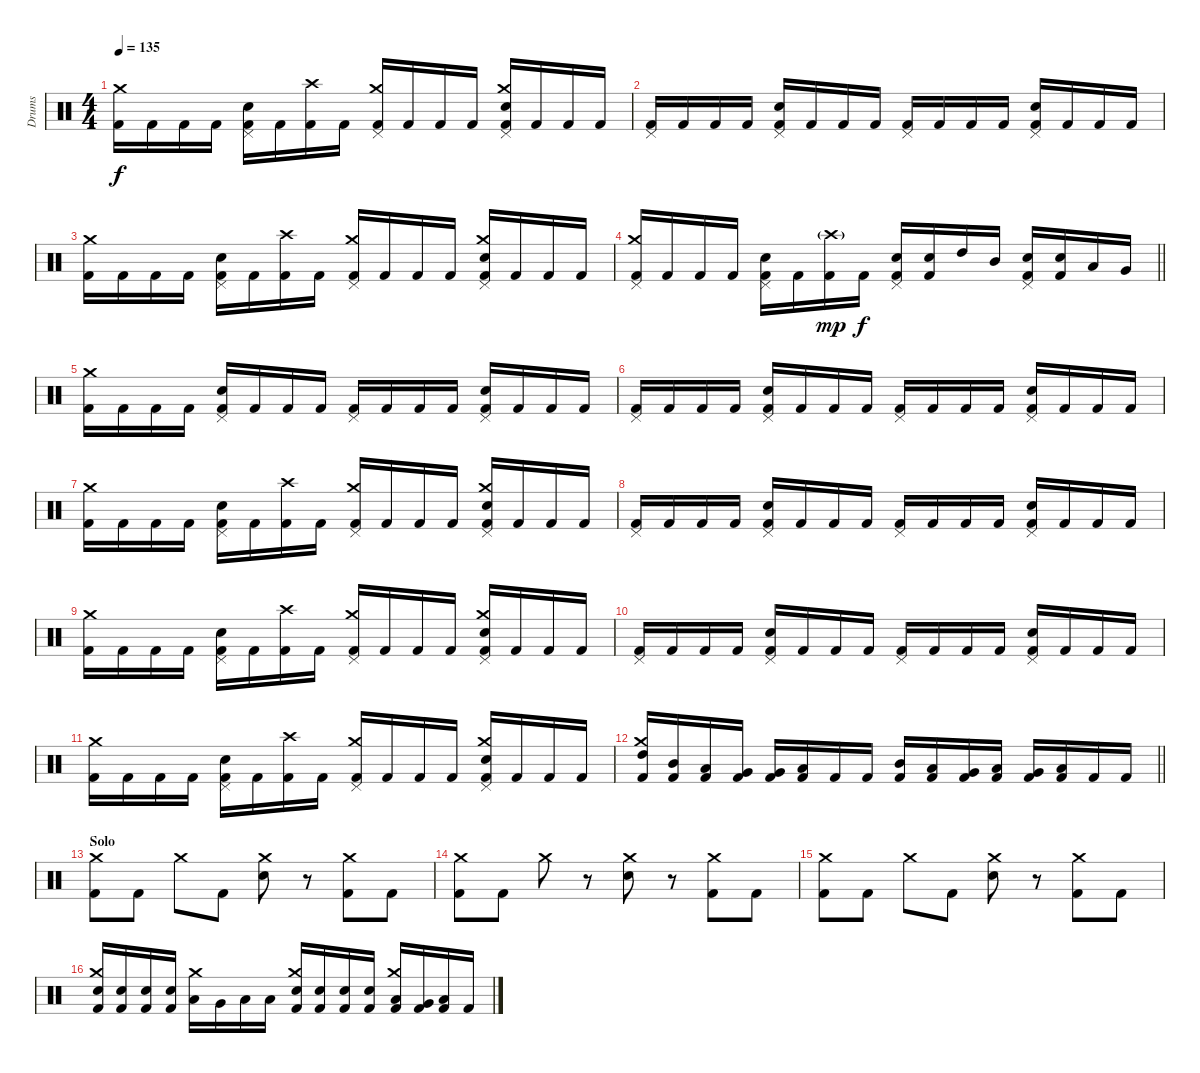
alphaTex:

\track ("Drums" "Drums") {instrument percussion}
\staff {score}
\articulation defaults
\ts (4 4)
\tempo 135
\clef neutral
\ks c
("Kick (hit) 2" "Crash medium (hit)").16{dy f} "Kick (hit) 2".16 "Kick (hit) 2".16 "Kick (hit) 2".16 ("Kick (hit) 2" "Snare (hit) 2" "Pedal Hi-Hat (hit)").16 "Kick (hit) 2".16 ("Kick (hit) 2" "Crash high (hit)").16 "Kick (hit) 2".16 ("Kick (hit) 2" "Pedal Hi-Hat (hit)" "Crash medium (hit)").16 "Kick (hit) 2".16 "Kick (hit) 2".16 "Kick (hit) 2".16 ("Kick (hit) 2" "Snare (hit) 2" "Pedal Hi-Hat (hit)" "Crash medium (hit)").16 "Kick (hit) 2".16 "Kick (hit) 2".16 "Kick (hit) 2".16 |
("Kick (hit) 2" "Pedal Hi-Hat (hit)").16 "Kick (hit) 2".16 "Kick (hit) 2".16 "Kick (hit) 2".16 ("Kick (hit) 2" "Snare (hit) 2" "Pedal Hi-Hat (hit)").16 "Kick (hit) 2".16 "Kick (hit) 2".16 "Kick (hit) 2".16 ("Kick (hit) 2" "Pedal Hi-Hat (hit)").16 "Kick (hit) 2".16 "Kick (hit) 2".16 "Kick (hit) 2".16 ("Kick (hit) 2" "Snare (hit) 2" "Pedal Hi-Hat (hit)").16 "Kick (hit) 2".16 "Kick (hit) 2".16 "Kick (hit) 2".16 |
("Kick (hit) 2" "Crash medium (hit)").16 "Kick (hit) 2".16 "Kick (hit) 2".16 "Kick (hit) 2".16 ("Kick (hit) 2" "Snare (hit) 2" "Pedal Hi-Hat (hit)").16 "Kick (hit) 2".16 ("Kick (hit) 2" "Crash high (hit)").16 "Kick (hit) 2".16 ("Kick (hit) 2" "Pedal Hi-Hat (hit)" "Crash medium (hit)").16 "Kick (hit) 2".16 "Kick (hit) 2".16 "Kick (hit) 2".16 ("Kick (hit) 2" "Snare (hit) 2" "Pedal Hi-Hat (hit)" "Crash medium (hit)").16 "Kick (hit) 2".16 "Kick (hit) 2".16 "Kick (hit) 2".16 |
\barLineRight lightlight
("Kick (hit) 2" "Pedal Hi-Hat (hit)" "Crash medium (hit)").16 "Kick (hit) 2".16 "Kick (hit) 2".16 "Kick (hit) 2".16 ("Kick (hit) 2" "Snare (hit) 2" "Pedal Hi-Hat (hit)").16 "Kick (hit) 2".16 ("Kick (hit) 2" "Crash high (hit)"{g}).16{dy mp} "Kick (hit) 2".16{dy f} ("Kick (hit) 2" "Snare (hit) 2" "Pedal Hi-Hat (hit)").16 ("Kick (hit) 2" "Snare (hit) 2").16 "High Tom (hit)".16 "Mid Tom (hit)".16 ("Kick (hit) 2" "Snare (hit) 2" "Pedal Hi-Hat (hit)").16 ("Kick (hit) 2" "Snare (hit) 2").16 "Low Tom (hit)".16 "Very Low Tom (hit)".16 |
\section ("" "")
("Kick (hit) 2" "Crash medium (hit)").16 "Kick (hit) 2".16 "Kick (hit) 2".16 "Kick (hit) 2".16 ("Kick (hit) 2" "Snare (hit) 2" "Pedal Hi-Hat (hit)").16 "Kick (hit) 2".16 "Kick (hit) 2".16 "Kick (hit) 2".16 ("Kick (hit) 2" "Pedal Hi-Hat (hit)").16 "Kick (hit) 2".16 "Kick (hit) 2".16 "Kick (hit) 2".16 ("Kick (hit) 2" "Snare (hit) 2" "Pedal Hi-Hat (hit)").16 "Kick (hit) 2".16 "Kick (hit) 2".16 "Kick (hit) 2".16 |
("Kick (hit) 2" "Pedal Hi-Hat (hit)").16 "Kick (hit) 2".16 "Kick (hit) 2".16 "Kick (hit) 2".16 ("Kick (hit) 2" "Snare (hit) 2" "Pedal Hi-Hat (hit)").16 "Kick (hit) 2".16 "Kick (hit) 2".16 "Kick (hit) 2".16 ("Kick (hit) 2" "Pedal Hi-Hat (hit)").16 "Kick (hit) 2".16 "Kick (hit) 2".16 "Kick (hit) 2".16 ("Kick (hit) 2" "Snare (hit) 2" "Pedal Hi-Hat (hit)").16 "Kick (hit) 2".16 "Kick (hit) 2".16 "Kick (hit) 2".16 |
("Kick (hit) 2" "Crash medium (hit)").16 "Kick (hit) 2".16 "Kick (hit) 2".16 "Kick (hit) 2".16 ("Kick (hit) 2" "Snare (hit) 2" "Pedal Hi-Hat (hit)").16 "Kick (hit) 2".16 ("Kick (hit) 2" "Crash high (hit)").16 "Kick (hit) 2".16 ("Kick (hit) 2" "Pedal Hi-Hat (hit)" "Crash medium (hit)").16 "Kick (hit) 2".16 "Kick (hit) 2".16 "Kick (hit) 2".16 ("Kick (hit) 2" "Snare (hit) 2" "Pedal Hi-Hat (hit)" "Crash medium (hit)").16 "Kick (hit) 2".16 "Kick (hit) 2".16 "Kick (hit) 2".16 |
("Kick (hit) 2" "Pedal Hi-Hat (hit)").16 "Kick (hit) 2".16 "Kick (hit) 2".16 "Kick (hit) 2".16 ("Kick (hit) 2" "Snare (hit) 2" "Pedal Hi-Hat (hit)").16 "Kick (hit) 2".16 "Kick (hit) 2".16 "Kick (hit) 2".16 ("Kick (hit) 2" "Pedal Hi-Hat (hit)").16 "Kick (hit) 2".16 "Kick (hit) 2".16 "Kick (hit) 2".16 ("Kick (hit) 2" "Snare (hit) 2" "Pedal Hi-Hat (hit)").16 "Kick (hit) 2".16 "Kick (hit) 2".16 "Kick (hit) 2".16 |
("Kick (hit) 2" "Crash medium (hit)").16 "Kick (hit) 2".16 "Kick (hit) 2".16 "Kick (hit) 2".16 ("Kick (hit) 2" "Snare (hit) 2" "Pedal Hi-Hat (hit)").16 "Kick (hit) 2".16 ("Kick (hit) 2" "Crash high (hit)").16 "Kick (hit) 2".16 ("Kick (hit) 2" "Pedal Hi-Hat (hit)" "Crash medium (hit)").16 "Kick (hit) 2".16 "Kick (hit) 2".16 "Kick (hit) 2".16 ("Kick (hit) 2" "Snare (hit) 2" "Pedal Hi-Hat (hit)" "Crash medium (hit)").16 "Kick (hit) 2".16 "Kick (hit) 2".16 "Kick (hit) 2".16 |
("Kick (hit) 2" "Pedal Hi-Hat (hit)").16 "Kick (hit) 2".16 "Kick (hit) 2".16 "Kick (hit) 2".16 ("Kick (hit) 2" "Snare (hit) 2" "Pedal Hi-Hat (hit)").16 "Kick (hit) 2".16 "Kick (hit) 2".16 "Kick (hit) 2".16 ("Kick (hit) 2" "Pedal Hi-Hat (hit)").16 "Kick (hit) 2".16 "Kick (hit) 2".16 "Kick (hit) 2".16 ("Kick (hit) 2" "Snare (hit) 2" "Pedal Hi-Hat (hit)").16 "Kick (hit) 2".16 "Kick (hit) 2".16 "Kick (hit) 2".16 |
("Kick (hit) 2" "Crash medium (hit)").16 "Kick (hit) 2".16 "Kick (hit) 2".16 "Kick (hit) 2".16 ("Kick (hit) 2" "Snare (hit) 2" "Pedal Hi-Hat (hit)").16 "Kick (hit) 2".16 ("Kick (hit) 2" "Crash high (hit)").16 "Kick (hit) 2".16 ("Kick (hit) 2" "Pedal Hi-Hat (hit)" "Crash medium (hit)").16 "Kick (hit) 2".16 "Kick (hit) 2".16 "Kick (hit) 2".16 ("Kick (hit) 2" "Snare (hit) 2" "Pedal Hi-Hat (hit)" "Crash medium (hit)").16 "Kick (hit) 2".16 "Kick (hit) 2".16 "Kick (hit) 2".16 |
\barLineRight lightlight
("Kick (hit) 2" "High Tom (hit)" "Crash medium (hit)").16 ("Kick (hit) 2" "Mid Tom (hit)").16 ("Kick (hit) 2" "Low Tom (hit)").16 ("Kick (hit) 2" "Very Low Tom (hit)").16 ("Kick (hit) 2" "Very Low Tom (hit)").16 ("Kick (hit) 2" "Low Floor Tom (hit)").16 "Kick (hit) 2".16 "Kick (hit) 2".16 ("Kick (hit) 2" "Mid Tom (hit)").16 ("Kick (hit) 2" "Low Tom (hit)").16 ("Kick (hit) 2" "Very Low Tom (hit)").16 ("Kick (hit) 2" "Low Floor Tom (hit)").16 ("Kick (hit) 2" "Very Low Tom (hit)").16 ("Kick (hit) 2" "Low Floor Tom (hit)").16 "Kick (hit) 2".16 "Kick (hit) 2".16 |
\section ("" "Solo")
("Kick (hit) 2" "Crash medium (hit)").8 "Kick (hit) 2".8 "Crash medium (hit)".8 "Kick (hit) 2".8 ("Snare (hit) 2" "Crash medium (hit)").8 r.8 ("Kick (hit) 2" "Crash medium (hit)").8 "Kick (hit) 2".8 |
("Kick (hit) 2" "Crash medium (hit)").8 "Kick (hit) 2".8 "Crash medium (hit)".8 r.8 ("Snare (hit) 2" "Crash medium (hit)").8 r.8 ("Kick (hit) 2" "Crash medium (hit)").8 "Kick (hit) 2".8 |
("Kick (hit) 2" "Crash medium (hit)").8 "Kick (hit) 2".8 "Crash medium (hit)".8 "Kick (hit) 2".8 ("Snare (hit) 2" "Crash medium (hit)").8 r.8 ("Kick (hit) 2" "Crash medium (hit)").8 "Kick (hit) 2".8 |
("Kick (hit) 2" "Snare (hit) 2" "Crash medium (hit)").16 ("Kick (hit) 2" "Snare (hit) 2").16 ("Kick (hit) 2" "Snare (hit) 2").16 ("Kick (hit) 2" "Snare (hit) 2").16 ("Low Tom (hit)" "Crash medium (hit)").16 "Very Low Tom (hit)".16 "Low Floor Tom (hit)".16 "Low Floor Tom (hit)".16 ("Kick (hit) 2" "Snare (hit) 2" "Crash medium (hit)").16 ("Kick (hit) 2" "Snare (hit) 2").16 ("Kick (hit) 2" "Snare (hit) 2").16 ("Kick (hit) 2" "Snare (hit) 2").16 ("Kick (hit) 2" "Low Tom (hit)" "Crash medium (hit)").16 ("Kick (hit) 2" "Very Low Tom (hit)").16 ("Kick (hit) 2" "Low Floor Tom (hit)").16 "Kick (hit) 2".16
